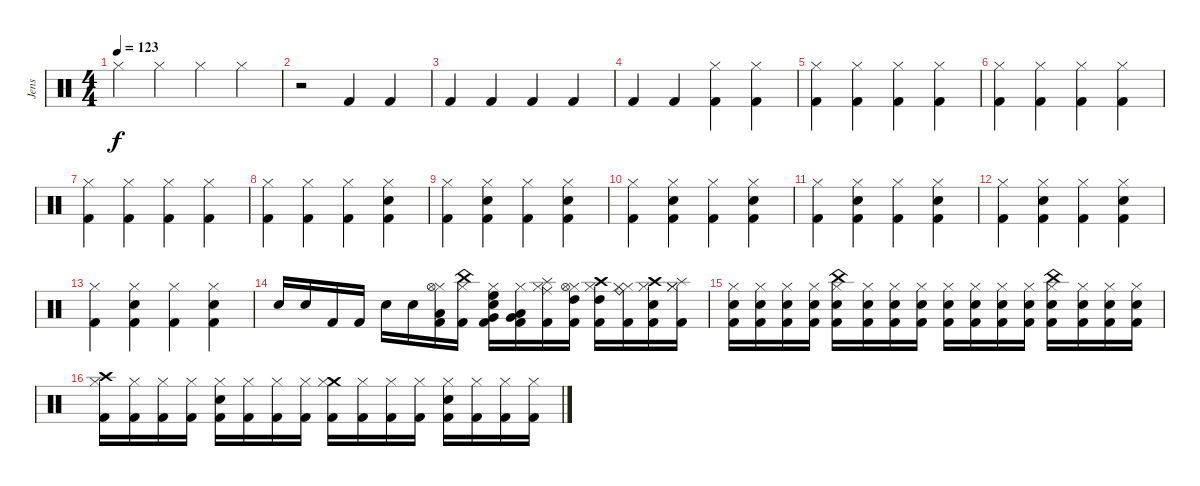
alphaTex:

\track ("Jens" "Jens") {instrument percussion}
\staff {score}
\articulation defaults
\ts (4 4)
\tempo 123
\clef neutral
\ks c "Hi-Hat (closed)".4{dy f} "Hi-Hat (closed)".4 "Hi-Hat (closed)".4 "Hi-Hat (closed)".4
|
r.2 "Kick (hit) 2".4 "Kick (hit) 2".4 |
"Kick (hit) 2".4 "Kick (hit) 2".4 "Kick (hit) 2".4 "Kick (hit) 2".4 |
"Kick (hit) 2".4 "Kick (hit) 2".4 ("Hi-Hat (closed)" "Kick (hit) 2").4 ("Hi-Hat (closed)" "Kick (hit) 2").4 |
("Hi-Hat (closed)" "Kick (hit) 2").4 ("Hi-Hat (closed)" "Kick (hit) 2").4 ("Hi-Hat (closed)" "Kick (hit) 2").4 ("Hi-Hat (closed)" "Kick (hit) 2").4 |
("Hi-Hat (closed)" "Kick (hit) 2").4 ("Hi-Hat (closed)" "Kick (hit) 2").4 ("Hi-Hat (closed)" "Kick (hit) 2").4 ("Hi-Hat (closed)" "Kick (hit) 2").4 |
("Hi-Hat (closed)" "Kick (hit) 2").4 ("Hi-Hat (closed)" "Kick (hit) 2").4 ("Hi-Hat (closed)" "Kick (hit) 2").4 ("Hi-Hat (closed)" "Kick (hit) 2").4 |
("Hi-Hat (closed)" "Kick (hit) 2").4 ("Hi-Hat (closed)" "Kick (hit) 2").4 ("Hi-Hat (closed)" "Kick (hit) 2").4 ("Hi-Hat (closed)" "Electric Snare (hit)" "Kick (hit) 2").4 |
("Hi-Hat (closed)" "Kick (hit) 2").4 ("Hi-Hat (closed)" "Electric Snare (hit)" "Kick (hit) 2").4 ("Hi-Hat (closed)" "Kick (hit) 2").4 ("Hi-Hat (closed)" "Electric Snare (hit)" "Kick (hit) 2").4 |
("Hi-Hat (closed)" "Kick (hit) 2").4 ("Hi-Hat (closed)" "Electric Snare (hit)" "Kick (hit) 2").4 ("Hi-Hat (closed)" "Kick (hit) 2").4 ("Hi-Hat (closed)" "Electric Snare (hit)" "Kick (hit) 2").4 |
("Hi-Hat (closed)" "Kick (hit) 2").4 ("Hi-Hat (closed)" "Electric Snare (hit)" "Kick (hit) 2").4 ("Hi-Hat (closed)" "Kick (hit) 2").4 ("Hi-Hat (closed)" "Electric Snare (hit)" "Kick (hit) 2").4 |
("Hi-Hat (closed)" "Kick (hit) 2").4 ("Hi-Hat (closed)" "Electric Snare (hit)" "Kick (hit) 2").4 ("Hi-Hat (closed)" "Kick (hit) 2").4 ("Hi-Hat (closed)" "Electric Snare (hit)" "Kick (hit) 2").4 |
("Hi-Hat (closed)" "Kick (hit) 2").4 ("Hi-Hat (closed)" "Electric Snare (hit)" "Kick (hit) 2").4 ("Hi-Hat (closed)" "Kick (hit) 2").4 ("Hi-Hat (closed)" "Electric Snare (hit)" "Kick (hit) 2").4 |
"Snare (hit) 2".16 "Snare (hit) 2".16 "Kick (hit) 2".16 "Kick (hit) 2".16 "Snare (hit) 2".16 "Snare (hit) 2".16 ("Hi-Hat (closed)" "Low Tom (hit)" "Hi-Hat (open)" "Kick (hit) 2").16 ("Hi-Hat (closed)" "China (hit)" "Kick (hit) 2").16 ("Hi-Hat (closed)" "High Floor Tom (hit)" "Very Low Tom (hit)" "Snare (hit) 2" "Kick (hit) 2").16 ("Hi-Hat (closed)" "Low Floor Tom (hit)" "Very Low Tom (hit)" "Kick (hit) 2").16 ("Hi-Hat (closed)" "Splash (hit)" "Ride (middle)" "Kick (hit) 2").16 ("Hi-Hat (closed)" "Hi-Hat (open)" "High Tom (hit)" "Kick (hit) 2").16 ("Hi-Hat (closed)" "High Tom (hit)" "Crash high (hit)" "Kick (hit) 2").16 ("Hi-Hat (closed)" "Hi-Hat (closed)" "Ride (bell)" "Kick (hit) 2").16 ("Hi-Hat (closed)" "Snare (hit) 2" "Crash high (hit)" "Kick (hit) 2").16 ("Hi-Hat (closed)" "Splash (hit)" "Hi-Hat (closed)" "Kick (hit) 2").16 |
("Hi-Hat (closed)" "Snare (hit) 2" "Kick (hit) 2").16 ("Hi-Hat (closed)" "Snare (hit) 2" "Kick (hit) 2").16 ("Hi-Hat (closed)" "Snare (hit) 2" "Kick (hit) 2").16 ("Hi-Hat (closed)" "Snare (hit) 2" "Kick (hit) 2").16 ("Hi-Hat (closed)" "China (hit)" "Snare (hit) 2" "Kick (hit) 2").16 ("Hi-Hat (closed)" "Snare (hit) 2" "Kick (hit) 2").16 ("Hi-Hat (closed)" "Snare (hit) 2" "Kick (hit) 2").16 ("Hi-Hat (closed)" "Snare (hit) 2" "Kick (hit) 2").16 ("Hi-Hat (closed)" "Snare (hit) 2" "Kick (hit) 2").16 ("Hi-Hat (closed)" "Snare (hit) 2" "Kick (hit) 2").16 ("Hi-Hat (closed)" "Snare (hit) 2" "Kick (hit) 2").16 ("Hi-Hat (closed)" "Snare (hit) 2" "Kick (hit) 2").16 ("Hi-Hat (closed)" "China (hit)" "Snare (hit) 2" "Kick (hit) 2").16 ("Hi-Hat (closed)" "Snare (hit) 2" "Kick (hit) 2").16 ("Hi-Hat (closed)" "Snare (hit) 2" "Kick (hit) 2").16 ("Hi-Hat (closed)" "Snare (hit) 2" "Kick (hit) 2").16 |
("Crash high (hit)" "Hi-Hat (closed)" "Kick (hit) 2").16 ("Hi-Hat (closed)" "Kick (hit) 2").16 ("Hi-Hat (closed)" "Kick (hit) 2").16 ("Hi-Hat (closed)" "Kick (hit) 2").16 ("Hi-Hat (closed)" "Snare (hit) 2" "Kick (hit) 2").16 ("Hi-Hat (closed)" "Kick (hit) 2").16 ("Hi-Hat (closed)" "Kick (hit) 2").16 ("Hi-Hat (closed)" "Kick (hit) 2").16 ("Crash medium (hit)" "Hi-Hat (closed)" "Kick (hit) 2").16 ("Hi-Hat (closed)" "Kick (hit) 2").16 ("Hi-Hat (closed)" "Kick (hit) 2").16 ("Hi-Hat (closed)" "Kick (hit) 2").16 ("Hi-Hat (closed)" "Snare (hit) 2" "Kick (hit) 2").16 ("Hi-Hat (closed)" "Kick (hit) 2").16 ("Hi-Hat (closed)" "Kick (hit) 2").16 ("Hi-Hat (closed)" "Kick (hit) 2").16
